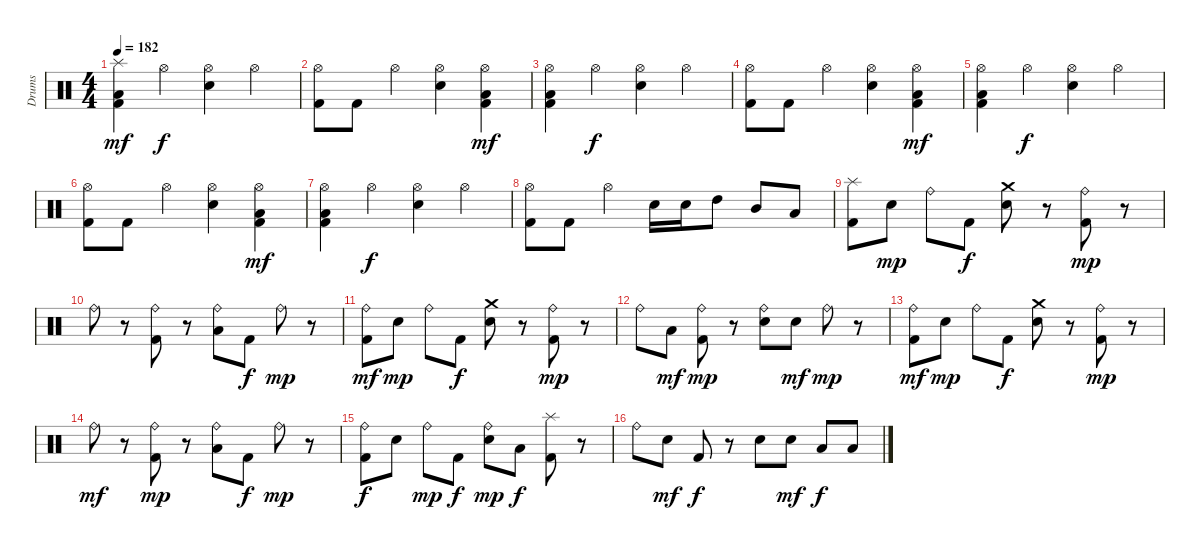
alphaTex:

\track ("Drums" "Drums") {instrument percussion}
\staff {score}
\articulation defaults
\ts (4 4)
\tempo 182
\clef neutral
\ks c
("Splash (hit)" "Low Floor Tom (hit)" "Kick (hit) 2").4{dy mf} "Hi-Hat (open)".4{dy f} ("Hi-Hat (open)" "Snare (hit) 2").4 "Hi-Hat (open)".4 |
("Hi-Hat (open)" "Kick (hit) 2").8 "Kick (hit) 2".8 "Hi-Hat (open)".4 ("Hi-Hat (open)" "Snare (hit) 2").4 ("Hi-Hat (open)" "Low Floor Tom (hit)" "Kick (hit) 2").4{dy mf} |
("Hi-Hat (open)" "Low Floor Tom (hit)" "Kick (hit) 2").4 "Hi-Hat (open)".4{dy f} ("Hi-Hat (open)" "Snare (hit) 2").4 "Hi-Hat (open)".4 |
("Hi-Hat (open)" "Kick (hit) 2").8 "Kick (hit) 2".8 "Hi-Hat (open)".4 ("Hi-Hat (open)" "Snare (hit) 2").4 ("Hi-Hat (open)" "Low Floor Tom (hit)" "Kick (hit) 2").4{dy mf} |
("Hi-Hat (open)" "Low Floor Tom (hit)" "Kick (hit) 2").4 "Hi-Hat (open)".4{dy f} ("Hi-Hat (open)" "Snare (hit) 2").4 "Hi-Hat (open)".4 |
("Hi-Hat (open)" "Kick (hit) 2").8 "Kick (hit) 2".8 "Hi-Hat (open)".4 ("Hi-Hat (open)" "Snare (hit) 2").4 ("Hi-Hat (open)" "Low Floor Tom (hit)" "Kick (hit) 2").4{dy mf} |
("Hi-Hat (open)" "Low Floor Tom (hit)" "Kick (hit) 2").4 "Hi-Hat (open)".4{dy f} ("Hi-Hat (open)" "Snare (hit) 2").4 "Hi-Hat (open)".4 |
("Hi-Hat (open)" "Kick (hit) 2").8 "Kick (hit) 2".8 "Hi-Hat (open)".4 "Snare (hit) 2".16 "Snare (hit) 2".16 "High Tom (hit)".8 "Mid Tom (hit)".8 "Low Tom (hit)".8 |
("Splash (hit)" "Kick (hit) 2").8 "Snare (hit) 2".8{dy mp} "Ride (bell)".8 "Kick (hit) 2".8{dy f} ("Crash medium (hit)" "Snare (hit) 2").8 r.8 ("Ride (bell)" "Kick (hit) 2").8{dy mp} r.8 |
"Ride (bell)".8 r.8 ("Ride (bell)" "Kick (hit) 2").8 r.8 ("Ride (bell)" "Low Tom (hit)").8 "Kick (hit) 2".8{dy f} "Ride (bell)".8{dy mp} r.8 |
("Ride (bell)" "Kick (hit) 2").8{dy mf} "Snare (hit) 2".8{dy mp} "Ride (bell)".8 "Kick (hit) 2".8{dy f} ("Crash medium (hit)" "Snare (hit) 2").8 r.8 ("Ride (bell)" "Kick (hit) 2").8{dy mp} r.8 |
"Ride (bell)".8 "Low Tom (hit)".8{dy mf} ("Ride (bell)" "Kick (hit) 2").8{dy mp} r.8 ("Ride (bell)" "Snare (hit) 2").8 "Snare (hit) 2".8{dy mf} "Ride (bell)".8{dy mp} r.8 |
("Ride (bell)" "Kick (hit) 2").8{dy mf} "Snare (hit) 2".8{dy mp} "Ride (bell)".8 "Kick (hit) 2".8{dy f} ("Crash medium (hit)" "Snare (hit) 2").8 r.8 ("Ride (bell)" "Kick (hit) 2").8{dy mp} r.8 |
"Ride (bell)".8{dy mf} r.8 ("Ride (bell)" "Kick (hit) 2").8{dy mp} r.8 ("Ride (bell)" "Low Tom (hit)").8 "Kick (hit) 2".8{dy f} "Ride (bell)".8{dy mp} r.8 |
("Ride (bell)" "Kick (hit) 2").8{dy f} "Snare (hit) 2".8 "Ride (bell)".8{dy mp} "Kick (hit) 2".8{dy f} ("Ride (bell)" "Snare (hit) 2").8{dy mp} "Low Tom (hit)".8{dy f} ("Splash (hit)" "Kick (hit) 2").8 r.8 |
"Ride (bell)".8 "Snare (hit) 2".8{dy mf} "Kick (hit) 2".8{dy f} r.8 "Snare (hit) 2".8 "Snare (hit) 2".8{dy mf} "Low Tom (hit)".8{dy f} "Low Floor Tom (hit)".8
